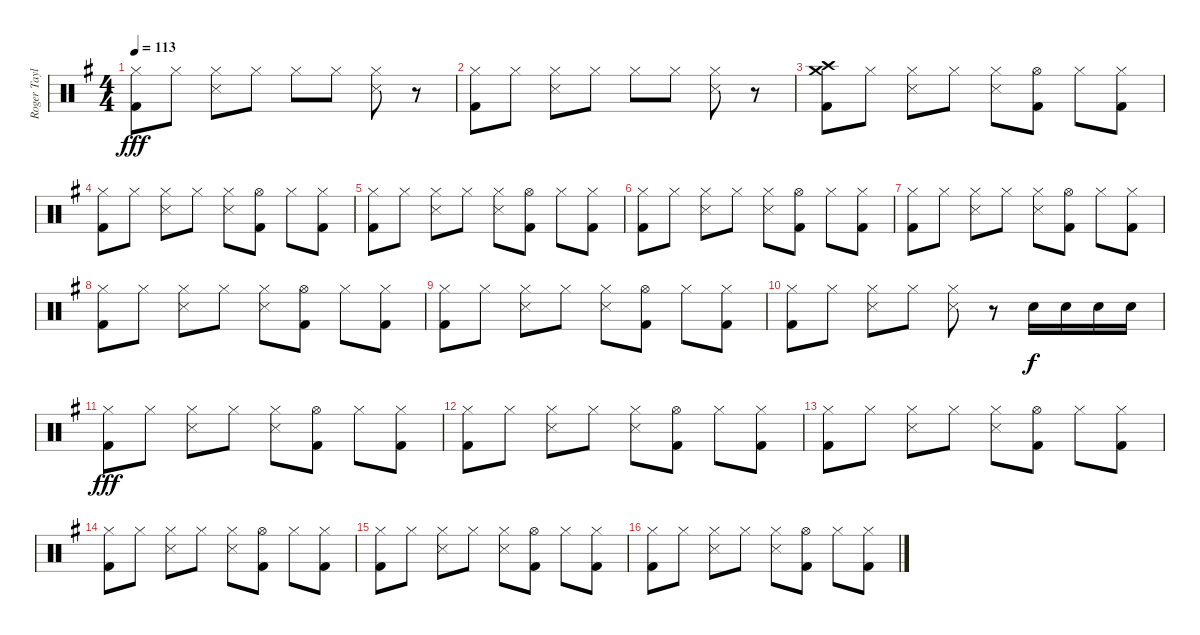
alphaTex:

\track ("Roger Taylor" "Roger Tayl") {instrument percussion}
\staff {score}
\articulation defaults
\ts (4 4)
\tempo 113
\clef neutral
\ks g
("Hi-Hat (closed)" "Kick (hit) 2").8{dy fff} "Hi-Hat (closed)".8 ("Hi-Hat (closed)" "Snare (side stick) 3").8 "Hi-Hat (closed)".8 "Hi-Hat (closed)".8 "Hi-Hat (closed)".8 ("Hi-Hat (closed)" "Snare (side stick) 3").8 r.8 |
("Hi-Hat (closed)" "Kick (hit) 2").8 "Hi-Hat (closed)".8 ("Hi-Hat (closed)" "Snare (side stick) 3").8 "Hi-Hat (closed)".8 "Hi-Hat (closed)".8 "Hi-Hat (closed)".8 ("Hi-Hat (closed)" "Snare (side stick) 3").8 r.8 |
("Crash high (hit)" "Crash medium (hit)" "Kick (hit) 2").8 "Hi-Hat (closed)".8 ("Hi-Hat (closed)" "Snare (side stick) 3").8 "Hi-Hat (closed)".8 ("Hi-Hat (closed)" "Snare (side stick) 3").8 ("Hi-Hat (open)" "Kick (hit) 2").8 "Hi-Hat (closed)".8 ("Hi-Hat (closed)" "Kick (hit) 2").8 |
("Hi-Hat (closed)" "Kick (hit) 2").8 "Hi-Hat (closed)".8 ("Hi-Hat (closed)" "Snare (side stick) 3").8 "Hi-Hat (closed)".8 ("Hi-Hat (closed)" "Snare (side stick) 3").8 ("Hi-Hat (open)" "Kick (hit) 2").8 "Hi-Hat (closed)".8 ("Hi-Hat (closed)" "Kick (hit) 2").8 |
("Hi-Hat (closed)" "Kick (hit) 2").8 "Hi-Hat (closed)".8 ("Hi-Hat (closed)" "Snare (side stick) 3").8 "Hi-Hat (closed)".8 ("Hi-Hat (closed)" "Snare (side stick) 3").8 ("Hi-Hat (open)" "Kick (hit) 2").8 "Hi-Hat (closed)".8 ("Hi-Hat (closed)" "Kick (hit) 2").8 |
("Hi-Hat (closed)" "Kick (hit) 2").8 "Hi-Hat (closed)".8 ("Hi-Hat (closed)" "Snare (side stick) 3").8 "Hi-Hat (closed)".8 ("Hi-Hat (closed)" "Snare (side stick) 3").8 ("Hi-Hat (open)" "Kick (hit) 2").8 "Hi-Hat (closed)".8 ("Hi-Hat (closed)" "Kick (hit) 2").8 |
("Hi-Hat (closed)" "Kick (hit) 2").8 "Hi-Hat (closed)".8 ("Hi-Hat (closed)" "Snare (side stick) 3").8 "Hi-Hat (closed)".8 ("Hi-Hat (closed)" "Snare (side stick) 3").8 ("Hi-Hat (open)" "Kick (hit) 2").8 "Hi-Hat (closed)".8 ("Hi-Hat (closed)" "Kick (hit) 2").8 |
("Hi-Hat (closed)" "Kick (hit) 2").8 "Hi-Hat (closed)".8 ("Hi-Hat (closed)" "Snare (side stick) 3").8 "Hi-Hat (closed)".8 ("Hi-Hat (closed)" "Snare (side stick) 3").8 ("Hi-Hat (open)" "Kick (hit) 2").8 "Hi-Hat (closed)".8 ("Hi-Hat (closed)" "Kick (hit) 2").8 |
("Hi-Hat (closed)" "Kick (hit) 2").8 "Hi-Hat (closed)".8 ("Hi-Hat (closed)" "Snare (side stick) 3").8 "Hi-Hat (closed)".8 ("Hi-Hat (closed)" "Snare (side stick) 3").8 ("Hi-Hat (open)" "Kick (hit) 2").8 "Hi-Hat (closed)".8 ("Hi-Hat (closed)" "Kick (hit) 2").8 |
("Hi-Hat (closed)" "Kick (hit) 2").8 "Hi-Hat (closed)".8 ("Hi-Hat (closed)" "Snare (side stick) 3").8 "Hi-Hat (closed)".8 ("Hi-Hat (closed)" "Snare (side stick) 3").8 r.8 "Snare (hit) 2".16{dy f} "Snare (hit) 2".16 "Snare (hit) 2".16 "Snare (hit) 2".16 |
("Hi-Hat (closed)" "Kick (hit) 2").8{dy fff} "Hi-Hat (closed)".8 ("Hi-Hat (closed)" "Snare (side stick) 3").8 "Hi-Hat (closed)".8 ("Hi-Hat (closed)" "Snare (side stick) 3").8 ("Hi-Hat (open)" "Kick (hit) 2").8 "Hi-Hat (closed)".8 ("Hi-Hat (closed)" "Kick (hit) 2").8 |
("Hi-Hat (closed)" "Kick (hit) 2").8 "Hi-Hat (closed)".8 ("Hi-Hat (closed)" "Snare (side stick) 3").8 "Hi-Hat (closed)".8 ("Hi-Hat (closed)" "Snare (side stick) 3").8 ("Hi-Hat (open)" "Kick (hit) 2").8 "Hi-Hat (closed)".8 ("Hi-Hat (closed)" "Kick (hit) 2").8 |
("Hi-Hat (closed)" "Kick (hit) 2").8 "Hi-Hat (closed)".8 ("Hi-Hat (closed)" "Snare (side stick) 3").8 "Hi-Hat (closed)".8 ("Hi-Hat (closed)" "Snare (side stick) 3").8 ("Hi-Hat (open)" "Kick (hit) 2").8 "Hi-Hat (closed)".8 ("Hi-Hat (closed)" "Kick (hit) 2").8 |
("Hi-Hat (closed)" "Kick (hit) 2").8 "Hi-Hat (closed)".8 ("Hi-Hat (closed)" "Snare (side stick) 3").8 "Hi-Hat (closed)".8 ("Hi-Hat (closed)" "Snare (side stick) 3").8 ("Hi-Hat (open)" "Kick (hit) 2").8 "Hi-Hat (closed)".8 ("Hi-Hat (closed)" "Kick (hit) 2").8 |
("Hi-Hat (closed)" "Kick (hit) 2").8 "Hi-Hat (closed)".8 ("Hi-Hat (closed)" "Snare (side stick) 3").8 "Hi-Hat (closed)".8 ("Hi-Hat (closed)" "Snare (side stick) 3").8 ("Hi-Hat (open)" "Kick (hit) 2").8 "Hi-Hat (closed)".8 ("Hi-Hat (closed)" "Kick (hit) 2").8 |
("Hi-Hat (closed)" "Kick (hit) 2").8 "Hi-Hat (closed)".8 ("Hi-Hat (closed)" "Snare (side stick) 3").8 "Hi-Hat (closed)".8 ("Hi-Hat (closed)" "Snare (side stick) 3").8 ("Hi-Hat (open)" "Kick (hit) 2").8 "Hi-Hat (closed)".8 ("Hi-Hat (closed)" "Kick (hit) 2").8
